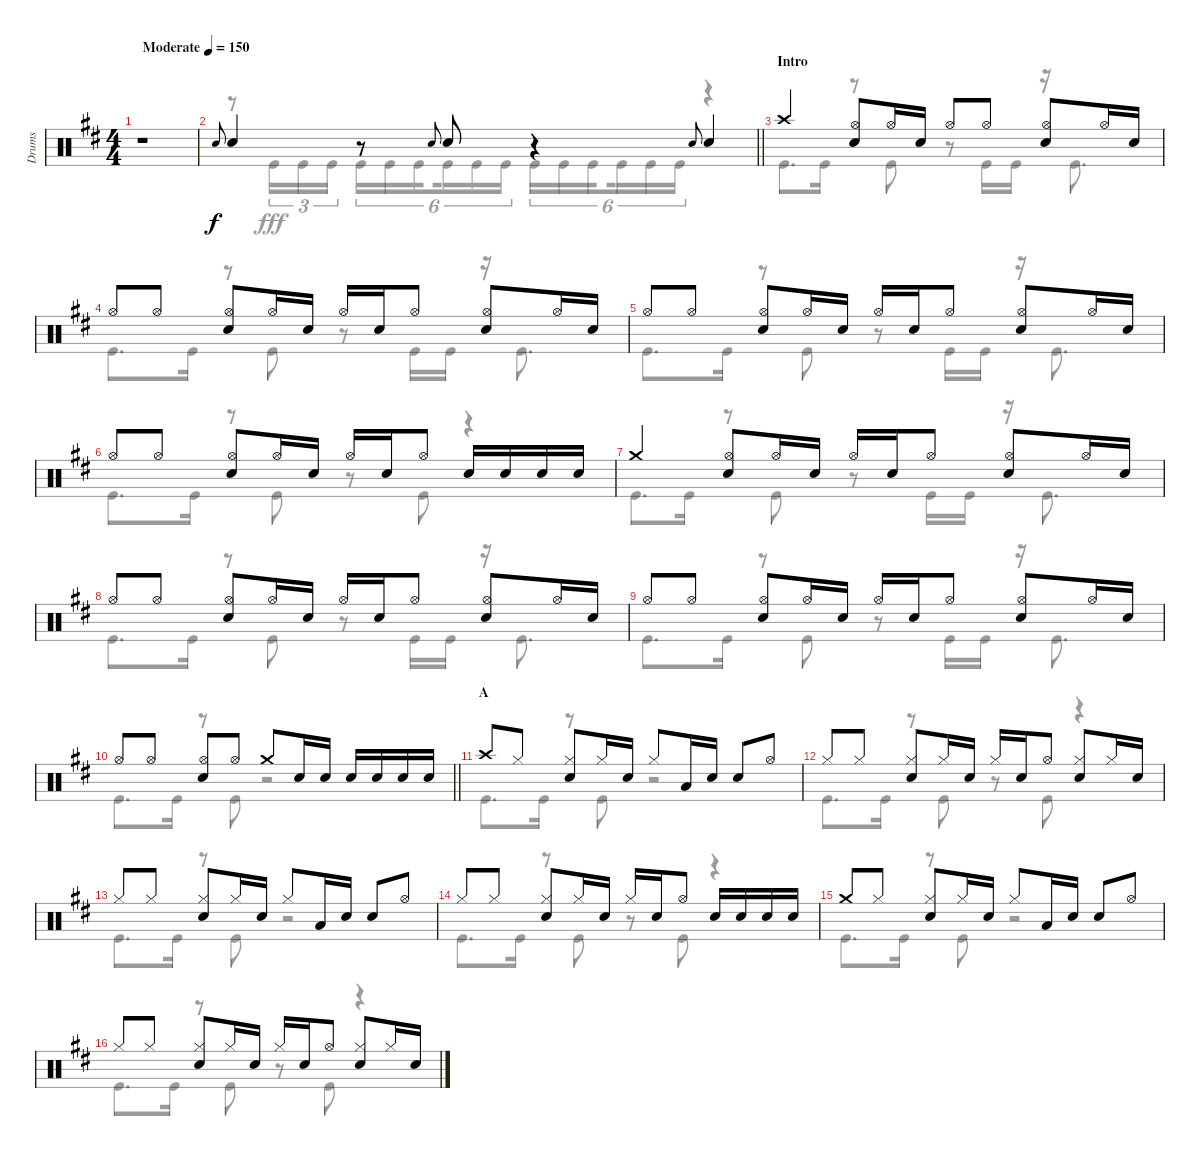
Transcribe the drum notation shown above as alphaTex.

\track ("Drums" "Drums") {instrument percussion}
\staff {score}
\articulation defaults
\voice
\ts (4 4)
\tempo (150 "Moderate")
\clef neutral
\ks d
r.1{dy f} |
\barLineRight lightlight "Snare (hit) 2".8{gr onbeat} "Snare (hit) 2".4
r.8 "Snare (hit) 2".8{gr onbeat} "Snare (hit) 2".8 r.4 "Snare (hit) 2".8{gr onbeat} "Snare (hit) 2".4 |
\section ("" "Intro")
"Crash high (hit)".4 ("Hi-Hat (open)" "Snare (hit) 2").8 "Hi-Hat (open)".16 "Snare (hit) 2".16 "Hi-Hat (open)".8 "Hi-Hat (open)".8 ("Hi-Hat (open)" "Snare (hit) 2").8 "Hi-Hat (open)".16 "Snare (hit) 2".16 |
"Hi-Hat (open)".8 "Hi-Hat (open)".8 ("Hi-Hat (open)" "Snare (hit) 2").8 "Hi-Hat (open)".16 "Snare (hit) 2".16 "Hi-Hat (open)".16 "Snare (hit) 2".16 "Hi-Hat (open)".8 ("Hi-Hat (open)" "Snare (hit) 2").8 "Hi-Hat (open)".16 "Snare (hit) 2".16 |
"Hi-Hat (open)".8 "Hi-Hat (open)".8 ("Hi-Hat (open)" "Snare (hit) 2").8 "Hi-Hat (open)".16 "Snare (hit) 2".16 "Hi-Hat (open)".16 "Snare (hit) 2".16 "Hi-Hat (open)".8 ("Hi-Hat (open)" "Snare (hit) 2").8 "Hi-Hat (open)".16 "Snare (hit) 2".16 |
"Hi-Hat (open)".8 "Hi-Hat (open)".8 ("Hi-Hat (open)" "Snare (hit) 2").8 "Hi-Hat (open)".16 "Snare (hit) 2".16 "Hi-Hat (open)".16 "Snare (hit) 2".16 "Hi-Hat (open)".8 "Snare (hit) 2".16 "Snare (hit) 2".16 "Snare (hit) 2".16 "Snare (hit) 2".16 |
"Crash medium (hit)".4 ("Hi-Hat (open)" "Snare (hit) 2").8 "Hi-Hat (open)".16 "Snare (hit) 2".16 "Hi-Hat (open)".16 "Snare (hit) 2".16 "Hi-Hat (open)".8 ("Hi-Hat (open)" "Snare (hit) 2").8 "Hi-Hat (open)".16 "Snare (hit) 2".16 |
"Hi-Hat (open)".8 "Hi-Hat (open)".8 ("Hi-Hat (open)" "Snare (hit) 2").8 "Hi-Hat (open)".16 "Snare (hit) 2".16 "Hi-Hat (open)".16 "Snare (hit) 2".16 "Hi-Hat (open)".8 ("Hi-Hat (open)" "Snare (hit) 2").8 "Hi-Hat (open)".16 "Snare (hit) 2".16 |
"Hi-Hat (open)".8 "Hi-Hat (open)".8 ("Hi-Hat (open)" "Snare (hit) 2").8 "Hi-Hat (open)".16 "Snare (hit) 2".16 "Hi-Hat (open)".16 "Snare (hit) 2".16 "Hi-Hat (open)".8 ("Hi-Hat (open)" "Snare (hit) 2").8 "Hi-Hat (open)".16 "Snare (hit) 2".16 |
\barLineRight lightlight "Hi-Hat (open)".8 "Hi-Hat (open)".8
("Hi-Hat (open)" "Snare (hit) 2").8 "Hi-Hat (open)".8 "Crash medium (hit)".8 "Snare (hit) 2".16 "Snare (hit) 2".16 "Snare (hit) 2".16 "Snare (hit) 2".16 "Snare (hit) 2".16 "Snare (hit) 2".16 |
\section ("" "A")
"Crash high (hit)".8 "Hi-Hat (closed)".8 ("Hi-Hat (closed)" "Snare (hit) 2").8 "Hi-Hat (closed)".16 "Snare (hit) 2".16 "Hi-Hat (closed)".8 "Low Tom (hit)".16 "Snare (hit) 2".16 "Snare (hit) 2".8 "Hi-Hat (open)".8 |
"Hi-Hat (closed)".8 "Hi-Hat (closed)".8 ("Hi-Hat (closed)" "Snare (hit) 2").8 "Hi-Hat (closed)".16 "Snare (hit) 2".16 "Hi-Hat (closed)".16 "Snare (hit) 2".16 "Hi-Hat (open)".8 ("Hi-Hat (closed)" "Snare (hit) 2").8 "Hi-Hat (closed)".16 "Snare (hit) 2".16 |
"Hi-Hat (closed)".8 "Hi-Hat (closed)".8 ("Hi-Hat (closed)" "Snare (hit) 2").8 "Hi-Hat (closed)".16 "Snare (hit) 2".16 "Hi-Hat (closed)".8 "Low Tom (hit)".16 "Snare (hit) 2".16 "Snare (hit) 2".8 "Hi-Hat (open)".8 |
"Hi-Hat (closed)".8 "Hi-Hat (closed)".8 ("Hi-Hat (closed)" "Snare (hit) 2").8 "Hi-Hat (closed)".16 "Snare (hit) 2".16 "Hi-Hat (closed)".16 "Snare (hit) 2".16 "Hi-Hat (open)".8 "Snare (hit) 2".16 "Snare (hit) 2".16 "Snare (hit) 2".16 "Snare (hit) 2".16 |
"Crash medium (hit)".8 "Hi-Hat (closed)".8 ("Hi-Hat (closed)" "Snare (hit) 2").8 "Hi-Hat (closed)".16 "Snare (hit) 2".16 "Hi-Hat (closed)".8 "Low Tom (hit)".16 "Snare (hit) 2".16 "Snare (hit) 2".8 "Hi-Hat (open)".8 |
"Hi-Hat (closed)".8 "Hi-Hat (closed)".8 ("Hi-Hat (closed)" "Snare (hit) 2").8 "Hi-Hat (closed)".16 "Snare (hit) 2".16 "Hi-Hat (closed)".16 "Snare (hit) 2".16 "Hi-Hat (open)".8 ("Hi-Hat (closed)" "Snare (hit) 2").8 "Hi-Hat (closed)".16 "Snare (hit) 2".16
\voice
\clef neutral
\ottava regular
\simile none
\ks d
r.1{dy fff} |
\barLineRight lightlight
r.8 "Kick (hit)".16{tu (3 2)} "Kick (hit)".16{tu (3 2)} "Kick (hit)".16{tu (3 2)} "Kick (hit)".16{tu (6 4)} "Kick (hit)".16{tu (6 4)} "Kick (hit)".16{tu (6 4) beam splitsecondary} "Kick (hit)".16{tu (6 4)} "Kick (hit)".16{tu (6 4)} "Kick (hit)".16{tu (6 4)} "Kick (hit)".16{tu (6 4)} "Kick (hit)".16{tu (6 4)} "Kick (hit)".16{tu (6 4) beam splitsecondary} "Kick (hit)".16{tu (6 4)} "Kick (hit)".16{tu (6 4)} "Kick (hit)".16{tu (6 4)} r.4 |
"Kick (hit)".8{d} "Kick (hit)".16 r.8 "Kick (hit)".8 r.8 "Kick (hit)".16 "Kick (hit)".16 r.16 "Kick (hit)".8{d} |
"Kick (hit)".8{d} "Kick (hit)".16 r.8 "Kick (hit)".8 r.8 "Kick (hit)".16 "Kick (hit)".16 r.16 "Kick (hit)".8{d} |
"Kick (hit)".8{d} "Kick (hit)".16 r.8 "Kick (hit)".8 r.8 "Kick (hit)".16 "Kick (hit)".16 r.16 "Kick (hit)".8{d} |
"Kick (hit)".8{d} "Kick (hit)".16 r.8 "Kick (hit)".8 r.8 "Kick (hit)".8 r.4 |
"Kick (hit)".8{d} "Kick (hit)".16 r.8 "Kick (hit)".8 r.8 "Kick (hit)".16 "Kick (hit)".16 r.16 "Kick (hit)".8{d} |
"Kick (hit)".8{d} "Kick (hit)".16 r.8 "Kick (hit)".8 r.8 "Kick (hit)".16 "Kick (hit)".16 r.16 "Kick (hit)".8{d} |
"Kick (hit)".8{d} "Kick (hit)".16 r.8 "Kick (hit)".8 r.8 "Kick (hit)".16 "Kick (hit)".16 r.16 "Kick (hit)".8{d} |
\barLineRight lightlight "Kick (hit)".8{d} "Kick (hit)".16
r.8 "Kick (hit)".8 r.2 |
"Kick (hit)".8{d} "Kick (hit)".16 r.8 "Kick (hit)".8 r.2 |
"Kick (hit)".8{d} "Kick (hit)".16 r.8 "Kick (hit)".8 r.8 "Kick (hit)".8 r.4 |
"Kick (hit)".8{d} "Kick (hit)".16 r.8 "Kick (hit)".8 r.2 |
"Kick (hit)".8{d} "Kick (hit)".16 r.8 "Kick (hit)".8 r.8 "Kick (hit)".8 r.4 |
"Kick (hit)".8{d} "Kick (hit)".16 r.8 "Kick (hit)".8 r.2 |
"Kick (hit)".8{d} "Kick (hit)".16 r.8 "Kick (hit)".8 r.8 "Kick (hit)".8 r.4
